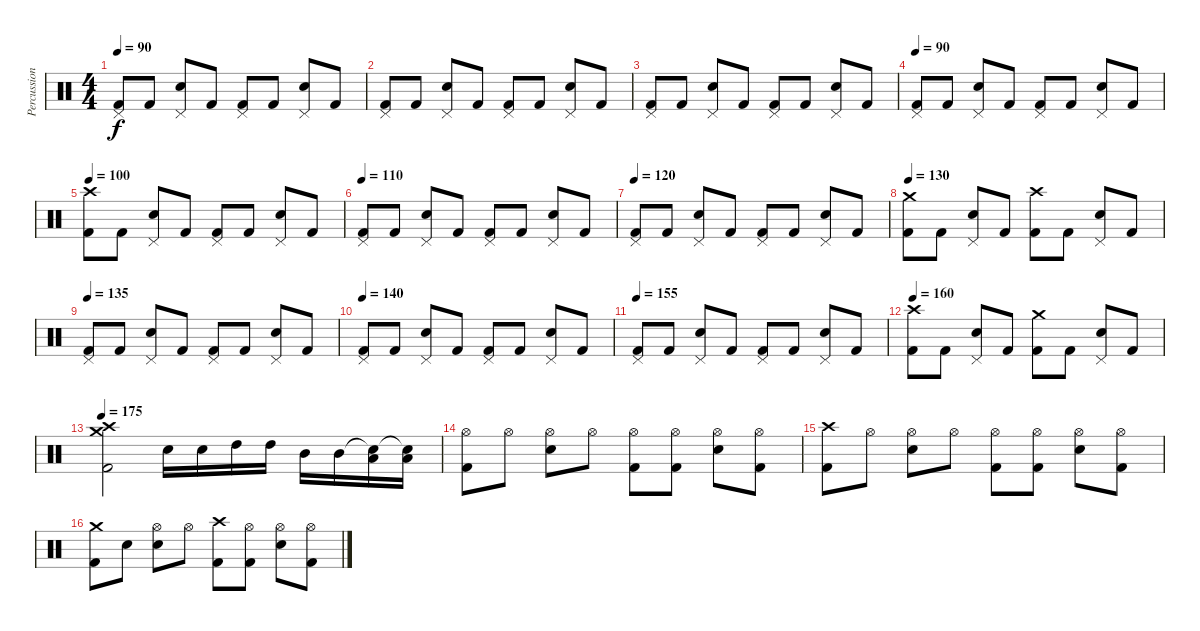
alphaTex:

\track ("Percussion" "Percussion") {instrument percussion}
\staff {score}
\articulation defaults
\ts (4 4)
\tempo 90
\clef neutral
\ks c
("Pedal Hi-Hat (hit)" "Kick (hit) 2").8{dy f} "Kick (hit) 2".8 ("Pedal Hi-Hat (hit)" "Electric Snare (hit)").8 "Kick (hit) 2".8 ("Pedal Hi-Hat (hit)" "Kick (hit) 2").8 "Kick (hit) 2".8 ("Pedal Hi-Hat (hit)" "Electric Snare (hit)").8 "Kick (hit) 2".8 |
("Pedal Hi-Hat (hit)" "Kick (hit) 2").8 "Kick (hit) 2".8 ("Pedal Hi-Hat (hit)" "Electric Snare (hit)").8 "Kick (hit) 2".8 ("Pedal Hi-Hat (hit)" "Kick (hit) 2").8 "Kick (hit) 2".8 ("Pedal Hi-Hat (hit)" "Electric Snare (hit)").8 "Kick (hit) 2".8 |
("Pedal Hi-Hat (hit)" "Kick (hit) 2").8 "Kick (hit) 2".8 ("Pedal Hi-Hat (hit)" "Electric Snare (hit)").8 "Kick (hit) 2".8 ("Pedal Hi-Hat (hit)" "Kick (hit) 2").8 "Kick (hit) 2".8 ("Pedal Hi-Hat (hit)" "Electric Snare (hit)").8 "Kick (hit) 2".8 |
\tempo 90
("Pedal Hi-Hat (hit)" "Kick (hit) 2").8 "Kick (hit) 2".8 ("Pedal Hi-Hat (hit)" "Electric Snare (hit)").8 "Kick (hit) 2".8 ("Pedal Hi-Hat (hit)" "Kick (hit) 2").8 "Kick (hit) 2".8 ("Pedal Hi-Hat (hit)" "Electric Snare (hit)").8 "Kick (hit) 2".8 |
\tempo 100
("Crash high (hit)" "Kick (hit) 2").8 "Kick (hit) 2".8 ("Pedal Hi-Hat (hit)" "Electric Snare (hit)").8 "Kick (hit) 2".8 ("Pedal Hi-Hat (hit)" "Kick (hit) 2").8 "Kick (hit) 2".8 ("Pedal Hi-Hat (hit)" "Electric Snare (hit)").8 "Kick (hit) 2".8 |
\tempo 110
("Pedal Hi-Hat (hit)" "Kick (hit) 2").8 "Kick (hit) 2".8 ("Pedal Hi-Hat (hit)" "Electric Snare (hit)").8 "Kick (hit) 2".8 ("Pedal Hi-Hat (hit)" "Kick (hit) 2").8 "Kick (hit) 2".8 ("Pedal Hi-Hat (hit)" "Electric Snare (hit)").8 "Kick (hit) 2".8 |
\tempo 120
("Pedal Hi-Hat (hit)" "Kick (hit) 2").8 "Kick (hit) 2".8 ("Pedal Hi-Hat (hit)" "Electric Snare (hit)").8 "Kick (hit) 2".8 ("Pedal Hi-Hat (hit)" "Kick (hit) 2").8 "Kick (hit) 2".8 ("Pedal Hi-Hat (hit)" "Electric Snare (hit)").8 "Kick (hit) 2".8 |
\tempo 130
("Crash medium (hit)" "Kick (hit) 2").8 "Kick (hit) 2".8 ("Pedal Hi-Hat (hit)" "Electric Snare (hit)").8 "Kick (hit) 2".8 ("Crash high (hit)" "Kick (hit) 2").8 "Kick (hit) 2".8 ("Pedal Hi-Hat (hit)" "Electric Snare (hit)").8 "Kick (hit) 2".8 |
\tempo 135
("Pedal Hi-Hat (hit)" "Kick (hit) 2").8 "Kick (hit) 2".8 ("Pedal Hi-Hat (hit)" "Electric Snare (hit)").8 "Kick (hit) 2".8 ("Pedal Hi-Hat (hit)" "Kick (hit) 2").8 "Kick (hit) 2".8 ("Pedal Hi-Hat (hit)" "Electric Snare (hit)").8 "Kick (hit) 2".8 |
\tempo 140
("Pedal Hi-Hat (hit)" "Kick (hit) 2").8 "Kick (hit) 2".8 ("Pedal Hi-Hat (hit)" "Electric Snare (hit)").8 "Kick (hit) 2".8 ("Pedal Hi-Hat (hit)" "Kick (hit) 2").8 "Kick (hit) 2".8 ("Pedal Hi-Hat (hit)" "Electric Snare (hit)").8 "Kick (hit) 2".8 |
\tempo 155
("Pedal Hi-Hat (hit)" "Kick (hit) 2").8 "Kick (hit) 2".8 ("Pedal Hi-Hat (hit)" "Electric Snare (hit)").8 "Kick (hit) 2".8 ("Pedal Hi-Hat (hit)" "Kick (hit) 2").8 "Kick (hit) 2".8 ("Pedal Hi-Hat (hit)" "Electric Snare (hit)").8 "Kick (hit) 2".8 |
\tempo 160
("Crash high (hit)" "Kick (hit) 2").8 "Kick (hit) 2".8 ("Pedal Hi-Hat (hit)" "Electric Snare (hit)").8 "Kick (hit) 2".8 ("Crash medium (hit)" "Kick (hit) 2").8 "Kick (hit) 2".8 ("Pedal Hi-Hat (hit)" "Electric Snare (hit)").8 "Kick (hit) 2".8 |
\tempo 175
("Crash medium (hit)" "Crash high (hit)" "Kick (hit) 2").2 "Electric Snare (hit)".16 "Electric Snare (hit)".16 "High Tom (hit)".16 "High Tom (hit)".16 "Mid Tom (hit)".16 "Mid Tom (hit)".16 ("Snare (hit)"{t} "Low Tom (hit)").16 ("Snare (hit)"{t} "Low Tom (hit)").16 |
("Hi-Hat (open)" "Kick (hit) 2").8 "Hi-Hat (open)"{x}.8 ("Hi-Hat (open)" "Electric Snare (hit)").8 "Hi-Hat (open)"{x}.8 ("Hi-Hat (open)" "Kick (hit) 2").8 ("Hi-Hat (open)"{x} "Kick (hit) 2").8 ("Hi-Hat (open)" "Electric Snare (hit)").8 ("Hi-Hat (open)"{x} "Kick (hit) 2").8 |
("Crash high (hit)" "Kick (hit) 2").8 "Hi-Hat (open)"{x}.8 ("Hi-Hat (open)" "Electric Snare (hit)").8 "Hi-Hat (open)"{x}.8 ("Hi-Hat (open)" "Kick (hit) 2").8 ("Hi-Hat (open)"{x} "Kick (hit) 2").8 ("Hi-Hat (open)" "Electric Snare (hit)").8 ("Hi-Hat (open)"{x} "Kick (hit) 2").8 |
("Crash medium (hit)" "Kick (hit) 2").8 "Snare (hit)"{x}.8 ("Hi-Hat (open)" "Electric Snare (hit)").8 "Hi-Hat (open)"{x}.8 ("Crash high (hit)" "Kick (hit) 2").8 ("Hi-Hat (open)"{x} "Kick (hit) 2").8 ("Hi-Hat (open)" "Electric Snare (hit)").8 ("Hi-Hat (open)"{x} "Kick (hit) 2").8
